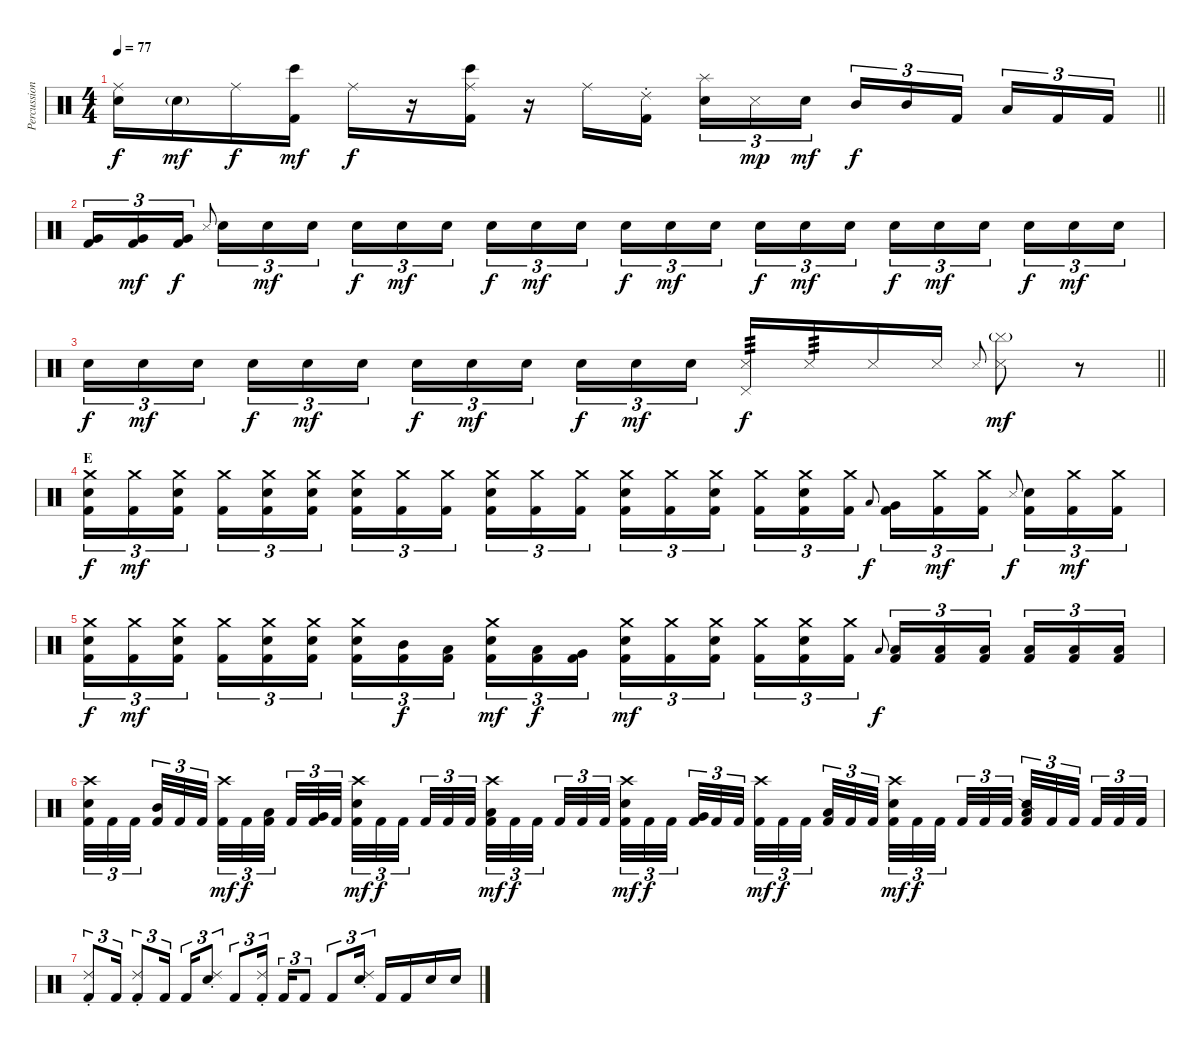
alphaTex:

\track ("Percussion" "Percussion") {instrument percussion}
\staff {score}
\articulation defaults
\ts (4 4)
\tempo 77
\clef neutral
\barLineRight lightlight
\ks c
("Ride (middle)" "Snare (hit) 2").16{dy f} "Snare (hit) 2"{g}.16{dy mf} "Ride (middle)".16{dy f} ("Bongo High (hit)" "Kick (hit) 2").16{dy mf} "Ride (middle)".16{dy f} r.16 ("Ride (middle)" "Bongo High (hit)" "Kick (hit) 2").16 r.16 "Ride (middle)".16 ("Ride (choke) 2" "Kick (hit) 2").16{beam splitsecondary} ("Splash (hit)" "Snare (hit) 2").16{tu (3 2)} "Metronome (hit)".16{tu (3 2) dy mp} "Snare (hit) 2".16{tu (3 2) dy mf} "Mid Tom (hit)".16{tu (3 2) dy f} "Mid Tom (hit)".16{tu (3 2)} "Kick (hit) 2".16{tu (3 2) beam splitsecondary} "Low Tom (hit)".16{tu (3 2)} "Kick (hit) 2".16{tu (3 2)} "Kick (hit) 2".16{tu (3 2)} |
("Very Low Tom (hit)" "Kick (hit) 2").16{tu (3 2)} ("Very Low Tom (hit)" "Kick (hit) 2").16{tu (3 2) dy mf} ("Very Low Tom (hit)" "Kick (hit) 2").16{tu (3 2) dy f} "Metronome (hit)".8{gr onbeat beam splitsecondary} "Snare (hit) 2".16{tu (3 2)} "Electric Snare (hit)".16{tu (3 2) dy mf} "Electric Snare (hit)".16{tu (3 2)} "Electric Snare (hit)".16{tu (3 2) dy f} "Electric Snare (hit)".16{tu (3 2) dy mf} "Electric Snare (hit)".16{tu (3 2) beam splitsecondary} "Electric Snare (hit)".16{tu (3 2) dy f} "Electric Snare (hit)".16{tu (3 2) dy mf} "Electric Snare (hit)".16{tu (3 2)} "Electric Snare (hit)".16{tu (3 2) dy f} "Electric Snare (hit)".16{tu (3 2) dy mf} "Electric Snare (hit)".16{tu (3 2) beam splitsecondary} "Electric Snare (hit)".16{tu (3 2) dy f} "Electric Snare (hit)".16{tu (3 2) dy mf} "Electric Snare (hit)".16{tu (3 2)} "Electric Snare (hit)".16{tu (3 2) dy f} "Electric Snare (hit)".16{tu (3 2) dy mf} "Electric Snare (hit)".16{tu (3 2) beam splitsecondary} "Electric Snare (hit)".16{tu (3 2) dy f} "Electric Snare (hit)".16{tu (3 2) dy mf} "Electric Snare (hit)".16{tu (3 2)} |
\barLineRight lightlight "Electric Snare (hit)".16{tu (3 2) dy f} "Electric Snare (hit)".16{tu (3 2) dy mf} "Electric Snare (hit)".16{tu (3 2) beam splitsecondary} "Electric Snare (hit)".16{tu (3 2) dy f} "Electric Snare (hit)".16{tu (3 2) dy mf} "Electric Snare (hit)".16{tu (3 2)} "Electric Snare (hit)".16{tu (3 2) dy f} "Electric Snare (hit)".16{tu (3 2) dy mf} "Electric Snare (hit)".16{tu (3 2) beam splitsecondary} "Electric Snare (hit)".16{tu (3 2) dy f} "Electric Snare (hit)".16{tu (3 2) dy mf} "Electric Snare (hit)".16{tu (3 2)}
("Pedal Hi-Hat (hit)" "Snare (side stick) 3").16{tp 3 dy f} "Snare (side stick) 3".16{tp 3} "Snare (side stick) 3".16 "Snare (side stick) 3".16 "Snare (side stick) 3".8{gr onbeat} ("Cymbal (hit)"{g} "Snare (side stick) 3").8{dy mf} r.8 |
\section ("" "E")
("Crash medium (hit)" "Snare (hit) 2" "Kick (hit) 2").16{tu (3 2) dy f} ("Crash medium (hit)" "Kick (hit) 2").16{tu (3 2) dy mf} ("Crash medium (hit)" "Snare (hit) 2" "Kick (hit) 2").16{tu (3 2) beam splitsecondary} ("Crash medium (hit)" "Kick (hit) 2").16{tu (3 2)} ("Crash medium (hit)" "Snare (hit) 2" "Kick (hit) 2").16{tu (3 2)} ("Crash medium (hit)" "Snare (hit) 2" "Kick (hit) 2").16{tu (3 2)} ("Crash medium (hit)" "Snare (hit) 2" "Kick (hit) 2").16{tu (3 2)} ("Crash medium (hit)" "Kick (hit) 2").16{tu (3 2)} ("Crash medium (hit)" "Kick (hit) 2").16{tu (3 2) beam splitsecondary} ("Crash medium (hit)" "Snare (hit) 2" "Kick (hit) 2").16{tu (3 2)} ("Crash medium (hit)" "Kick (hit) 2").16{tu (3 2)} ("Crash medium (hit)" "Kick (hit) 2").16{tu (3 2)} ("Crash medium (hit)" "Snare (hit) 2" "Kick (hit) 2").16{tu (3 2)} ("Crash medium (hit)" "Kick (hit) 2").16{tu (3 2)} ("Crash medium (hit)" "Snare (hit) 2" "Kick (hit) 2").16{tu (3 2) beam splitsecondary} ("Crash medium (hit)" "Kick (hit) 2").16{tu (3 2)} ("Crash medium (hit)" "Snare (hit) 2" "Kick (hit) 2").16{tu (3 2)} ("Crash medium (hit)" "Kick (hit) 2").16{tu (3 2)} "Low Tom (hit)".8{gr onbeat dy f} ("Very Low Tom (hit)" "Kick (hit) 2").16{tu (3 2)} ("Crash medium (hit)" "Kick (hit) 2").16{tu (3 2) dy mf} ("Crash medium (hit)" "Kick (hit) 2").16{tu (3 2)} "Metronome (hit)".8{gr onbeat dy f beam splitsecondary} ("Snare (hit) 2" "Kick (hit) 2").16{tu (3 2)} ("Crash medium (hit)" "Kick (hit) 2").16{tu (3 2) dy mf} ("Crash medium (hit)" "Kick (hit) 2").16{tu (3 2)} |
("Crash medium (hit)" "Snare (hit) 2" "Kick (hit) 2").16{tu (3 2) dy f} ("Crash medium (hit)" "Kick (hit) 2").16{tu (3 2) dy mf} ("Crash medium (hit)" "Snare (hit) 2" "Kick (hit) 2").16{tu (3 2) beam splitsecondary} ("Crash medium (hit)" "Kick (hit) 2").16{tu (3 2)} ("Crash medium (hit)" "Snare (hit) 2" "Kick (hit) 2").16{tu (3 2)} ("Crash medium (hit)" "Snare (hit) 2" "Kick (hit) 2").16{tu (3 2)} ("Crash medium (hit)" "Snare (hit) 2" "Kick (hit) 2").16{tu (3 2)} ("Mid Tom (hit)" "Kick (hit) 2").16{tu (3 2) dy f} ("Low Tom (hit)" "Kick (hit) 2").16{tu (3 2) beam splitsecondary} ("Crash medium (hit)" "Snare (hit) 2" "Kick (hit) 2").16{tu (3 2) dy mf} ("Low Tom (hit)" "Kick (hit) 2").16{tu (3 2) dy f} ("Very Low Tom (hit)" "Kick (hit) 2").16{tu (3 2)} ("Crash medium (hit)" "Snare (hit) 2" "Kick (hit) 2").16{tu (3 2) dy mf} ("Crash medium (hit)" "Kick (hit) 2").16{tu (3 2)} ("Crash medium (hit)" "Snare (hit) 2" "Kick (hit) 2").16{tu (3 2) beam splitsecondary} ("Crash medium (hit)" "Kick (hit) 2").16{tu (3 2)} ("Crash medium (hit)" "Snare (hit) 2" "Kick (hit) 2").16{tu (3 2)} ("Crash medium (hit)" "Kick (hit) 2").16{tu (3 2)} "Low Tom (hit)".8{gr onbeat dy f} ("Low Tom (hit)" "Kick (hit) 2").16{tu (3 2)} ("Low Tom (hit)" "Kick (hit) 2").16{tu (3 2)} ("Low Tom (hit)" "Kick (hit) 2").16{tu (3 2) beam splitsecondary} ("Low Tom (hit)" "Kick (hit) 2").16{tu (3 2)} ("Low Tom (hit)" "Kick (hit) 2").16{tu (3 2)} ("Low Tom (hit)" "Kick (hit) 2").16{tu (3 2)} |
("Crash high (hit)" "Snare (hit) 2" "Kick (hit) 2").32{tu (3 2)} "Kick (hit) 2".32{tu (3 2)} "Kick (hit) 2".32{tu (3 2) beam splitsecondary} ("Mid Tom (hit)" "Kick (hit) 2").32{tu (3 2)} "Kick (hit) 2".32{tu (3 2)} "Kick (hit) 2".32{tu (3 2) beam splitsecondary} ("Crash high (hit)" "Kick (hit) 2").32{tu (3 2) dy mf} "Kick (hit) 2".32{tu (3 2) dy f} ("Low Tom (hit)" "Kick (hit) 2").32{tu (3 2) beam splitsecondary} "Kick (hit) 2".32{tu (3 2)} ("Very Low Tom (hit)" "Kick (hit) 2").32{tu (3 2)} "Kick (hit) 2".32{tu (3 2)} ("Crash high (hit)" "Snare (hit) 2" "Kick (hit) 2").32{tu (3 2) dy mf} "Kick (hit) 2".32{tu (3 2) dy f} "Kick (hit) 2".32{tu (3 2) beam splitsecondary} "Kick (hit) 2".32{tu (3 2)} "Kick (hit) 2".32{tu (3 2)} "Kick (hit) 2".32{tu (3 2) beam splitsecondary} ("Crash high (hit)" "Low Tom (hit)" "Kick (hit) 2").32{tu (3 2) dy mf} "Kick (hit) 2".32{tu (3 2) dy f} "Kick (hit) 2".32{tu (3 2) beam splitsecondary} "Kick (hit) 2".32{tu (3 2)} "Kick (hit) 2".32{tu (3 2)} "Kick (hit) 2".32{tu (3 2)} ("Crash high (hit)" "Snare (hit) 2" "Kick (hit) 2").32{tu (3 2) dy mf} "Kick (hit) 2".32{tu (3 2) dy f} "Kick (hit) 2".32{tu (3 2) beam splitsecondary} ("Very Low Tom (hit)" "Kick (hit) 2").32{tu (3 2)} "Kick (hit) 2".32{tu (3 2)} "Kick (hit) 2".32{tu (3 2) beam splitsecondary} ("Crash high (hit)" "Kick (hit) 2").32{tu (3 2) dy mf} "Kick (hit) 2".32{tu (3 2) dy f} "Kick (hit) 2".32{tu (3 2) beam splitsecondary} ("Low Tom (hit)" "Kick (hit) 2").32{tu (3 2)} "Kick (hit) 2".32{tu (3 2)} "Kick (hit) 2".32{tu (3 2)} ("Crash high (hit)" "Snare (hit) 2" "Kick (hit) 2").32{tu (3 2) dy mf} "Kick (hit) 2".32{tu (3 2) dy f} "Kick (hit) 2".32{tu (3 2) beam splitsecondary} "Kick (hit) 2".32{tu (3 2)} "Kick (hit) 2".32{tu (3 2)} "Kick (hit) 2".32{tu (3 2) beam splitsecondary} ("Snare (side stick) 2" "Low Floor Tom (hit)" "Kick (hit) 2").32{tu (3 2)} "Kick (hit) 2".32{tu (3 2)} "Kick (hit) 2".32{tu (3 2) beam splitsecondary} "Kick (hit) 2".32{tu (3 2)} "Kick (hit) 2".32{tu (3 2)} "Kick (hit) 2".32{tu (3 2)} |
("Ride (choke) 2" "Kick (hit) 2").8{tu (3 2)} "Kick (hit) 2".16{tu (3 2)} ("Ride (choke) 2" "Kick (hit) 2").8{tu (3 2)} "Kick (hit) 2".16{tu (3 2)} "Kick (hit) 2".16{tu (3 2)} ("Ride (choke) 2" "Snare (hit) 2").8{tu (3 2)} "Kick (hit) 2".8{tu (3 2)} ("Ride (choke) 2" "Kick (hit) 2").16{tu (3 2)} "Kick (hit) 2".16{tu (3 2)} "Kick (hit) 2".8{tu (3 2)} "Kick (hit) 2".8{tu (3 2)} ("Ride (choke) 2" "Snare (hit) 2").16{tu (3 2)} "Kick (hit) 2".16 "Kick (hit) 2".16 "Snare (hit) 2".16 "Snare (hit) 2".16
